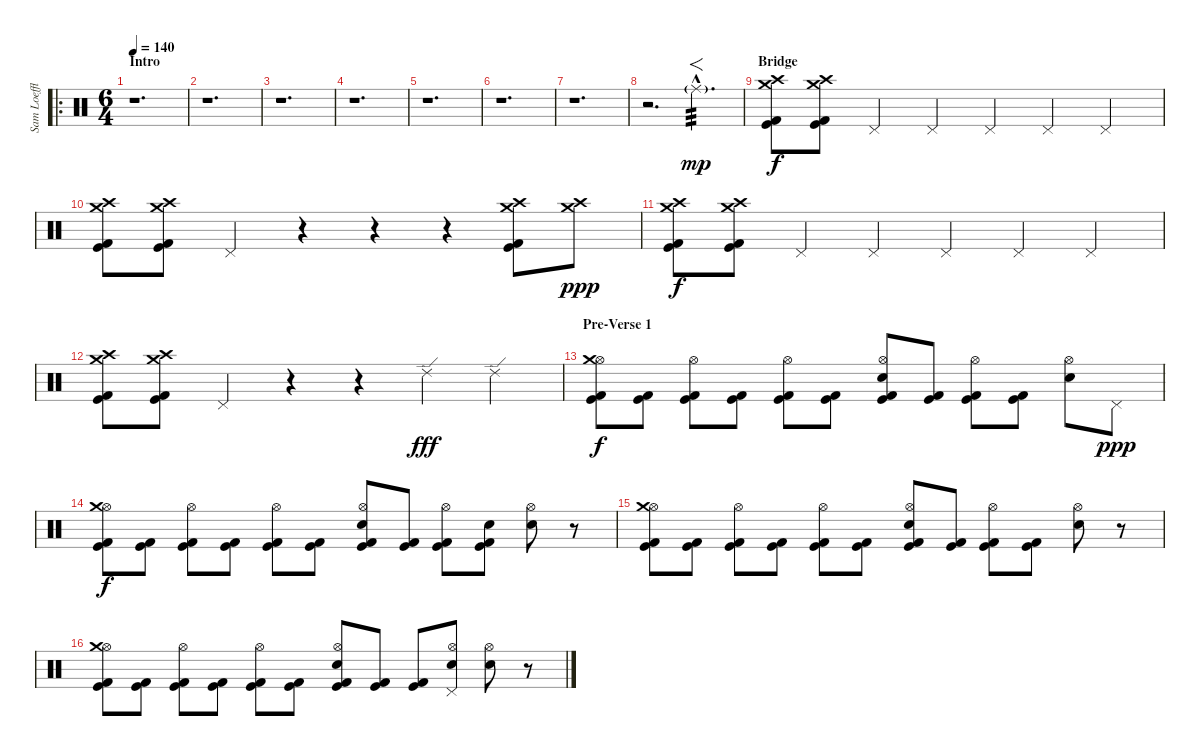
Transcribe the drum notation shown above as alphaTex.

\track ("Sam Loeffler - Drums" "Sam Loeffl") {instrument percussion}
\staff {score}
\articulation defaults
\ro
\ts (6 4)
\section ("" "Intro")
\tempo 140
\clef neutral
\ks c
r.1{d dy mp} |
r.1{d} |
r.1{d} |
r.1{d} |
r.1{d} |
r.1{d} |
r.1{d} |
r.2{d} "Ride (middle)"{g hac}.2{f d tp 3} |
\section ("" "Bridge")
("Crash medium (hit)" "Crash high (hit)" "Kick (hit)" "Kick (hit) 2").8{dy f} ("Crash medium (hit)" "Crash high (hit)" "Kick (hit)" "Kick (hit) 2").8 "Pedal Hi-Hat (hit)".4 "Pedal Hi-Hat (hit)".4 "Pedal Hi-Hat (hit)".4 "Pedal Hi-Hat (hit)".4 "Pedal Hi-Hat (hit)".4 |
("Crash medium (hit)" "Crash high (hit)" "Kick (hit)" "Kick (hit) 2").8 ("Crash medium (hit)" "Crash high (hit)" "Kick (hit)" "Kick (hit) 2").8 "Pedal Hi-Hat (hit)".4 r.4 r.4 r.4 ("Crash medium (hit)" "Crash high (hit)" "Kick (hit)" "Kick (hit) 2").8 ("Crash medium (hit)" "Crash high (hit)").8{dy ppp} |
("Crash medium (hit)" "Crash high (hit)" "Kick (hit)" "Kick (hit) 2").8{dy f} ("Crash medium (hit)" "Crash high (hit)" "Kick (hit)" "Kick (hit) 2").8 "Pedal Hi-Hat (hit)".4 "Pedal Hi-Hat (hit)".4 "Pedal Hi-Hat (hit)".4 "Pedal Hi-Hat (hit)".4 "Pedal Hi-Hat (hit)".4 |
("Crash medium (hit)" "Crash high (hit)" "Kick (hit)" "Kick (hit) 2").8 ("Crash medium (hit)" "Crash high (hit)" "Kick (hit)" "Kick (hit) 2").8 "Pedal Hi-Hat (hit)".4 r.4 r.4 "Ride (edge) 2".4{dy fff} "Ride (edge) 2".4 |
\section ("" "Pre-Verse 1")
("Hi-Hat (open)" "Crash medium (hit)" "Kick (hit)" "Kick (hit) 2").8{dy f} ("Kick (hit)" "Kick (hit) 2").8 ("Hi-Hat (open)" "Kick (hit)" "Kick (hit) 2").8 ("Kick (hit)" "Kick (hit) 2").8 ("Hi-Hat (open)" "Kick (hit)" "Kick (hit) 2").8 ("Kick (hit)" "Kick (hit) 2").8 ("Hi-Hat (open)" "Electric Snare (hit)" "Kick (hit)" "Kick (hit) 2").8 ("Kick (hit)" "Kick (hit) 2").8 ("Hi-Hat (open)" "Kick (hit)" "Kick (hit) 2").8 ("Kick (hit)" "Kick (hit) 2").8 ("Hi-Hat (open)" "Electric Snare (hit)").8 "Pedal Hi-Hat (hit)".8{dy ppp} |
("Hi-Hat (open)" "Crash medium (hit)" "Kick (hit)" "Kick (hit) 2").8{dy f} ("Kick (hit)" "Kick (hit) 2").8 ("Hi-Hat (open)" "Kick (hit)" "Kick (hit) 2").8 ("Kick (hit)" "Kick (hit) 2").8 ("Hi-Hat (open)" "Kick (hit)" "Kick (hit) 2").8 ("Kick (hit)" "Kick (hit) 2").8 ("Hi-Hat (open)" "Electric Snare (hit)" "Kick (hit)" "Kick (hit) 2").8 ("Kick (hit)" "Kick (hit) 2").8 ("Hi-Hat (open)" "Kick (hit)" "Kick (hit) 2").8 ("Electric Snare (hit)" "Kick (hit)" "Kick (hit) 2").8 ("Hi-Hat (open)" "Electric Snare (hit)").8 r.8 |
("Hi-Hat (open)" "Crash medium (hit)" "Kick (hit)" "Kick (hit) 2").8 ("Kick (hit)" "Kick (hit) 2").8 ("Hi-Hat (open)" "Kick (hit)" "Kick (hit) 2").8 ("Kick (hit)" "Kick (hit) 2").8 ("Hi-Hat (open)" "Kick (hit)" "Kick (hit) 2").8 ("Kick (hit)" "Kick (hit) 2").8 ("Hi-Hat (open)" "Electric Snare (hit)" "Kick (hit)" "Kick (hit) 2").8 ("Kick (hit)" "Kick (hit) 2").8 ("Hi-Hat (open)" "Kick (hit)" "Kick (hit) 2").8 ("Kick (hit)" "Kick (hit) 2").8 ("Hi-Hat (open)" "Electric Snare (hit)").8 r.8 |
("Hi-Hat (open)" "Crash medium (hit)" "Kick (hit)" "Kick (hit) 2").8 ("Kick (hit)" "Kick (hit) 2").8 ("Hi-Hat (open)" "Kick (hit)" "Kick (hit) 2").8 ("Kick (hit)" "Kick (hit) 2").8 ("Hi-Hat (open)" "Kick (hit)" "Kick (hit) 2").8 ("Kick (hit)" "Kick (hit) 2").8 ("Hi-Hat (open)" "Electric Snare (hit)" "Kick (hit)" "Kick (hit) 2").8 ("Kick (hit)" "Kick (hit) 2").8 ("Kick (hit)" "Kick (hit) 2").8 ("Hi-Hat (open)" "Pedal Hi-Hat (hit)" "Electric Snare (hit)").8 ("Hi-Hat (open)" "Electric Snare (hit)").8 r.8
